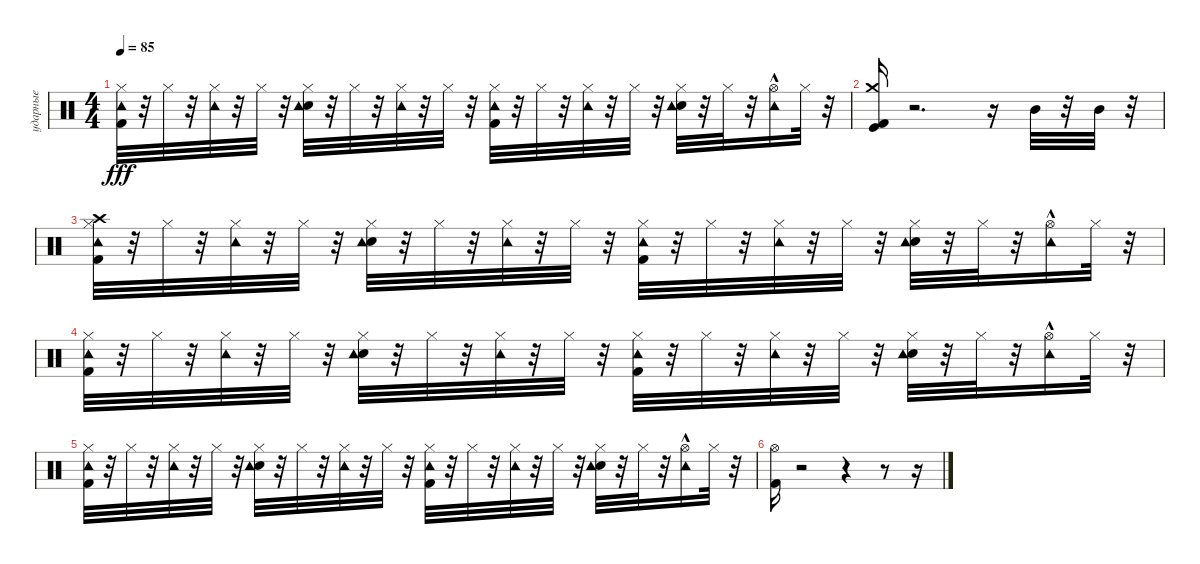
\track ("ударные" "ударные") {instrument percussion}
\staff {score}
\articulation defaults
\ts (4 4)
\tempo 85
\clef neutral
\ks c
("Kick (hit) 2" "Hi-Hat (closed)" "Tambourine (hit)").32{dy fff} r.32 "Hi-Hat (closed)".32 r.32 ("Hi-Hat (closed)" "Tambourine (hit)").32 r.32 "Hi-Hat (closed)".32 r.32 ("Hi-Hat (closed)" "Electric Snare (hit)" "Tambourine (hit)").32 r.32 "Hi-Hat (closed)".32 r.32 ("Hi-Hat (closed)" "Tambourine (hit)").32 r.32 "Hi-Hat (closed)".32 r.32 ("Hi-Hat (closed)" "Kick (hit) 2" "Tambourine (hit)").32 r.32 "Hi-Hat (closed)".32 r.32 ("Hi-Hat (closed)" "Tambourine (hit)").32 r.32 "Hi-Hat (closed)".32 r.32 ("Hi-Hat (closed)" "Electric Snare (hit)" "Tambourine (hit)").32 r.32 "Hi-Hat (closed)".32 r.32 ("Hi-Hat (open)"{hac} "Tambourine (hit)").16 "Hi-Hat (closed)".32 r.32 |
("Crash medium (hit)" "Kick (hit) 2" "Kick (hit)").16 r.2{d} r.16 "Mid Tom (hit)".32 r.32 "Mid Tom (hit)".32 r.32 |
("Crash high (hit)" "Kick (hit) 2" "Hi-Hat (closed)" "Tambourine (hit)").32 r.32 "Hi-Hat (closed)".32 r.32 ("Hi-Hat (closed)" "Tambourine (hit)").32 r.32 "Hi-Hat (closed)".32 r.32 ("Hi-Hat (closed)" "Electric Snare (hit)" "Tambourine (hit)").32 r.32 "Hi-Hat (closed)".32 r.32 ("Hi-Hat (closed)" "Tambourine (hit)").32 r.32 "Hi-Hat (closed)".32 r.32 ("Hi-Hat (closed)" "Kick (hit) 2" "Tambourine (hit)").32 r.32 "Hi-Hat (closed)".32 r.32 ("Hi-Hat (closed)" "Tambourine (hit)").32 r.32 "Hi-Hat (closed)".32 r.32 ("Hi-Hat (closed)" "Electric Snare (hit)" "Tambourine (hit)").32 r.32 "Hi-Hat (closed)".32 r.32 ("Hi-Hat (open)"{hac} "Tambourine (hit)").16 "Hi-Hat (closed)".32 r.32 |
("Kick (hit) 2" "Hi-Hat (closed)" "Tambourine (hit)").32 r.32 "Hi-Hat (closed)".32 r.32 ("Hi-Hat (closed)" "Tambourine (hit)").32 r.32 "Hi-Hat (closed)".32 r.32 ("Hi-Hat (closed)" "Electric Snare (hit)" "Tambourine (hit)").32 r.32 "Hi-Hat (closed)".32 r.32 ("Hi-Hat (closed)" "Tambourine (hit)").32 r.32 "Hi-Hat (closed)".32 r.32 ("Hi-Hat (closed)" "Kick (hit) 2" "Tambourine (hit)").32 r.32 "Hi-Hat (closed)".32 r.32 ("Hi-Hat (closed)" "Tambourine (hit)").32 r.32 "Hi-Hat (closed)".32 r.32 ("Hi-Hat (closed)" "Electric Snare (hit)" "Tambourine (hit)").32 r.32 "Hi-Hat (closed)".32 r.32 ("Hi-Hat (open)"{hac} "Tambourine (hit)").16 "Hi-Hat (closed)".32 r.32 |
("Kick (hit) 2" "Hi-Hat (closed)" "Tambourine (hit)").32 r.32 "Hi-Hat (closed)".32 r.32 ("Hi-Hat (closed)" "Tambourine (hit)").32 r.32 "Hi-Hat (closed)".32 r.32 ("Hi-Hat (closed)" "Electric Snare (hit)" "Tambourine (hit)").32 r.32 "Hi-Hat (closed)".32 r.32 ("Hi-Hat (closed)" "Tambourine (hit)").32 r.32 "Hi-Hat (closed)".32 r.32 ("Hi-Hat (closed)" "Kick (hit) 2" "Tambourine (hit)").32 r.32 "Hi-Hat (closed)".32 r.32 ("Hi-Hat (closed)" "Tambourine (hit)").32 r.32 "Hi-Hat (closed)".32 r.32 ("Hi-Hat (closed)" "Electric Snare (hit)" "Tambourine (hit)").32 r.32 "Hi-Hat (closed)".32 r.32 ("Hi-Hat (open)"{hac} "Tambourine (hit)").16 "Hi-Hat (closed)".32 r.32 |
("Hi-Hat (open)" "Kick (hit) 2").16 r.2 r.4 r.8 r.16
